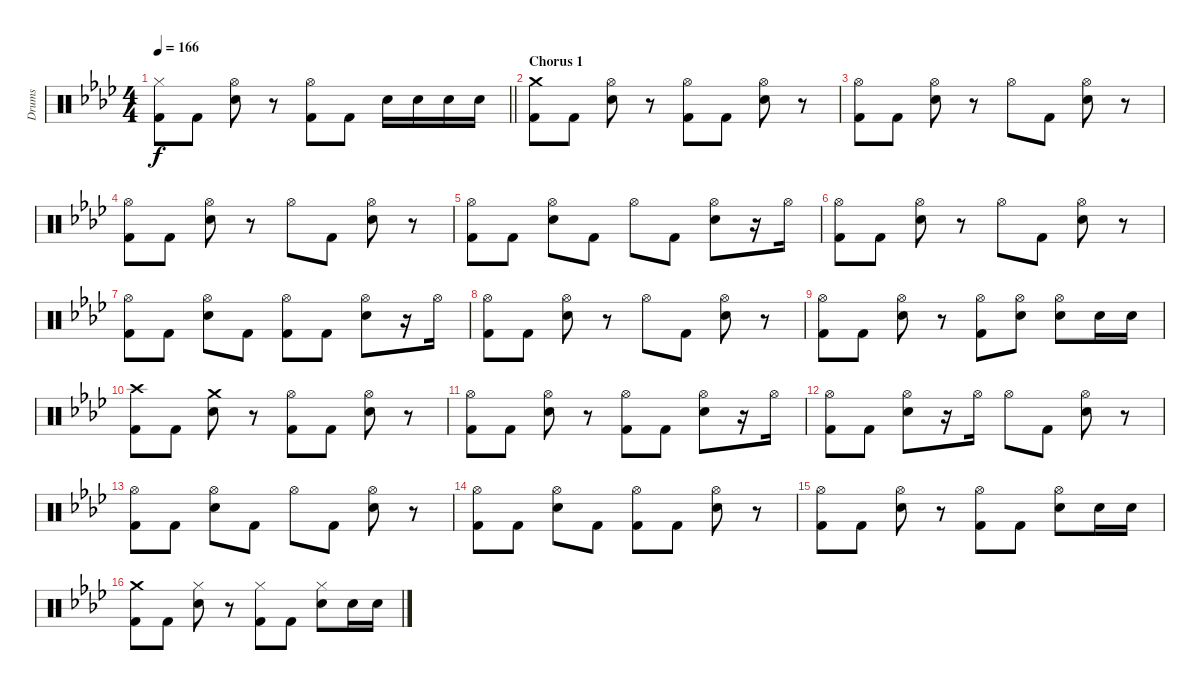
\track ("Drums" "Drums") {instrument percussion}
\staff {score}
\articulation defaults
\ts (4 4)
\tempo 166
\clef neutral
\barLineRight lightlight
\ks ab
("Hi-Hat (closed)" "Kick (hit) 2").8{dy f} "Kick (hit) 2".8 ("Hi-Hat (open)" "Electric Snare (hit)").8 r.8 ("Hi-Hat (open)" "Kick (hit) 2").8 "Kick (hit) 2".8 "Electric Snare (hit)".16 "Electric Snare (hit)".16 "Electric Snare (hit)".16 "Electric Snare (hit)".16 |
\section ("" "Chorus 1")
("Crash medium (hit)" "Kick (hit) 2").8 "Kick (hit) 2".8 ("Hi-Hat (open)" "Electric Snare (hit)").8 r.8 ("Hi-Hat (open)" "Kick (hit) 2").8 "Kick (hit) 2".8 ("Hi-Hat (open)" "Electric Snare (hit)").8 r.8 |
("Hi-Hat (open)" "Kick (hit) 2").8 "Kick (hit) 2".8 ("Hi-Hat (open)" "Electric Snare (hit)").8 r.8 "Hi-Hat (open)".8 "Kick (hit) 2".8 ("Hi-Hat (open)" "Electric Snare (hit)").8 r.8 |
("Hi-Hat (open)" "Kick (hit) 2").8 "Kick (hit) 2".8 ("Hi-Hat (open)" "Electric Snare (hit)").8 r.8 "Hi-Hat (open)".8 "Kick (hit) 2".8 ("Hi-Hat (open)" "Electric Snare (hit)").8 r.8 |
("Hi-Hat (open)" "Kick (hit) 2").8 "Kick (hit) 2".8 ("Hi-Hat (open)" "Electric Snare (hit)").8 "Kick (hit) 2".8 "Hi-Hat (open)".8 "Kick (hit) 2".8 ("Hi-Hat (open)" "Electric Snare (hit)").8 r.16 "Hi-Hat (open)".16 |
("Hi-Hat (open)" "Kick (hit) 2").8 "Kick (hit) 2".8 ("Hi-Hat (open)" "Electric Snare (hit)").8 r.8 "Hi-Hat (open)".8 "Kick (hit) 2".8 ("Hi-Hat (open)" "Electric Snare (hit)").8 r.8 |
("Hi-Hat (open)" "Kick (hit) 2").8 "Kick (hit) 2".8 ("Hi-Hat (open)" "Electric Snare (hit)").8 "Kick (hit) 2".8 ("Hi-Hat (open)" "Kick (hit) 2").8 "Kick (hit) 2".8 ("Hi-Hat (open)" "Electric Snare (hit)").8 r.16 "Hi-Hat (open)".16 |
("Hi-Hat (open)" "Kick (hit) 2").8 "Kick (hit) 2".8 ("Hi-Hat (open)" "Electric Snare (hit)").8 r.8 "Hi-Hat (open)".8 "Kick (hit) 2".8 ("Hi-Hat (open)" "Electric Snare (hit)").8 r.8 |
("Hi-Hat (open)" "Kick (hit) 2").8 "Kick (hit) 2".8 ("Hi-Hat (open)" "Electric Snare (hit)").8 r.8 ("Hi-Hat (open)" "Kick (hit) 2").8 ("Hi-Hat (open)" "Electric Snare (hit)").8 ("Hi-Hat (open)" "Electric Snare (hit)").8 "Electric Snare (hit)".16 "Electric Snare (hit)".16 |
("Crash high (hit)" "Kick (hit) 2").8 "Kick (hit) 2".8 ("Crash medium (hit)" "Electric Snare (hit)").8 r.8 ("Hi-Hat (open)" "Kick (hit) 2").8 "Kick (hit) 2".8 ("Hi-Hat (open)" "Electric Snare (hit)").8 r.8 |
("Hi-Hat (open)" "Kick (hit) 2").8 "Kick (hit) 2".8 ("Hi-Hat (open)" "Electric Snare (hit)").8 r.8 ("Hi-Hat (open)" "Kick (hit) 2").8 "Kick (hit) 2".8 ("Hi-Hat (open)" "Electric Snare (hit)").8 r.16 "Hi-Hat (open)".16 |
("Hi-Hat (open)" "Kick (hit) 2").8 "Kick (hit) 2".8 ("Hi-Hat (open)" "Electric Snare (hit)").8 r.16 "Hi-Hat (open)".16 "Hi-Hat (open)".8 "Kick (hit) 2".8 ("Hi-Hat (open)" "Electric Snare (hit)").8 r.8 |
("Hi-Hat (open)" "Kick (hit) 2").8 "Kick (hit) 2".8 ("Hi-Hat (open)" "Electric Snare (hit)").8 "Kick (hit) 2".8 "Hi-Hat (open)".8 "Kick (hit) 2".8 ("Hi-Hat (open)" "Electric Snare (hit)").8 r.8 |
("Hi-Hat (open)" "Kick (hit) 2").8 "Kick (hit) 2".8 ("Hi-Hat (open)" "Electric Snare (hit)").8 "Kick (hit) 2".8 ("Hi-Hat (open)" "Kick (hit) 2").8 "Kick (hit) 2".8 ("Hi-Hat (open)" "Electric Snare (hit)").8 r.8 |
("Hi-Hat (open)" "Kick (hit) 2").8 "Kick (hit) 2".8 ("Hi-Hat (open)" "Electric Snare (hit)").8 r.8 ("Hi-Hat (open)" "Kick (hit) 2").8 "Kick (hit) 2".8 ("Hi-Hat (open)" "Electric Snare (hit)").8 "Electric Snare (hit)".16 "Electric Snare (hit)".16 |
("Crash medium (hit)" "Kick (hit) 2").8 "Kick (hit) 2".8 ("Hi-Hat (closed)" "Electric Snare (hit)").8 r.8 ("Hi-Hat (closed)" "Kick (hit) 2").8 "Kick (hit) 2".8 ("Hi-Hat (closed)" "Electric Snare (hit)").8 "Electric Snare (hit)".16 "Electric Snare (hit)".16
